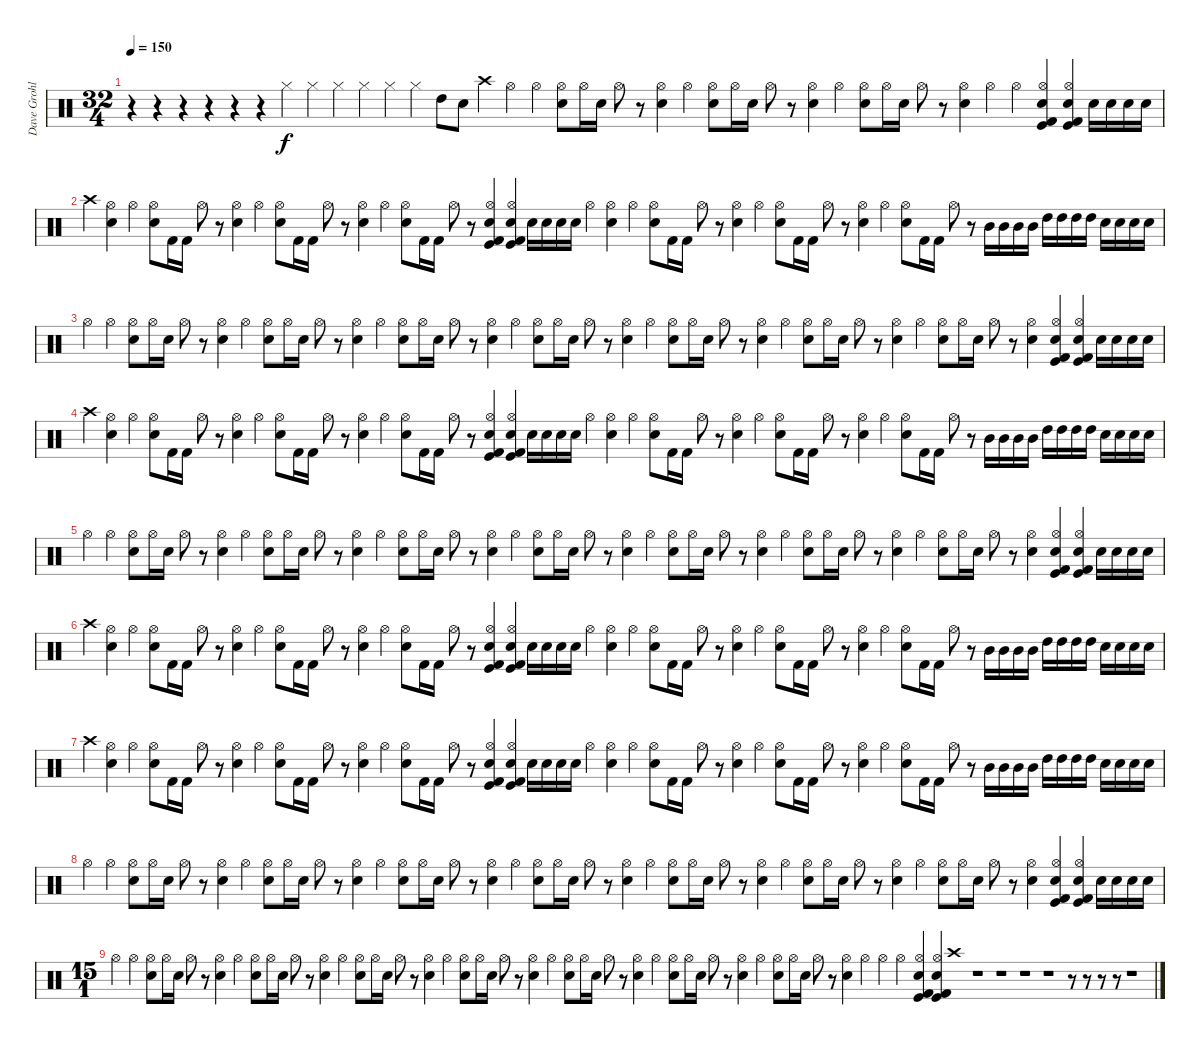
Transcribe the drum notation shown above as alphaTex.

\track ("Dave Grohl" "Dave Grohl") {instrument percussion}
\staff {score}
\articulation defaults
\ts (32 4)
\tempo 150
\clef neutral
\ks c
r.4{dy f} r.4 r.4 r.4 r.4 r.4 "Hi-Hat (closed)".4 "Hi-Hat (closed)".4 "Hi-Hat (closed)".4 "Hi-Hat (closed)".4 "Hi-Hat (closed)".4 "Hi-Hat (closed)".4 "High Tom (hit)".8 "Snare (hit) 2".8 "Crash high (hit)".4 "Hi-Hat (open)".4 "Hi-Hat (open)".4 ("Hi-Hat (open)" "Snare (hit) 2").8 "Hi-Hat (open)".16 "Snare (hit) 2".16 "Hi-Hat (open)".8 r.8 ("Hi-Hat (open)" "Snare (hit) 2").4 "Hi-Hat (open)".4 ("Hi-Hat (open)" "Snare (hit) 2").8 "Hi-Hat (open)".16 "Snare (hit) 2".16 "Hi-Hat (open)".8 r.8 ("Hi-Hat (open)" "Snare (hit) 2").4 "Hi-Hat (open)".4 ("Hi-Hat (open)" "Snare (hit) 2").8 "Hi-Hat (open)".16 "Snare (hit) 2".16 "Hi-Hat (open)".8 r.8 ("Hi-Hat (open)" "Snare (hit) 2").4 "Hi-Hat (open)".4 "Hi-Hat (open)".4 ("Hi-Hat (open)" "Snare (hit) 2" "Kick (hit) 2" "Kick (hit)").4 ("Hi-Hat (open)" "Snare (hit) 2" "Kick (hit) 2" "Kick (hit)").4 "Snare (hit) 2".16 "Snare (hit) 2".16 "Snare (hit) 2".16 "Snare (hit) 2".16 |
"Crash high (hit)".4 ("Hi-Hat (open)" "Snare (hit) 2").4 "Hi-Hat (open)".4 ("Hi-Hat (open)" "Snare (hit) 2").8 "Kick (hit) 2".16 "Kick (hit) 2".16 "Hi-Hat (open)".8 r.8 ("Hi-Hat (open)" "Snare (hit) 2").4 "Hi-Hat (open)".4 ("Hi-Hat (open)" "Snare (hit) 2").8 "Kick (hit) 2".16 "Kick (hit) 2".16 "Hi-Hat (open)".8 r.8 ("Hi-Hat (open)" "Snare (hit) 2").4 "Hi-Hat (open)".4 ("Hi-Hat (open)" "Snare (hit) 2").8 "Kick (hit) 2".16 "Kick (hit) 2".16 "Hi-Hat (open)".8 r.8 ("Hi-Hat (open)" "Snare (hit) 2" "Kick (hit)" "Kick (hit) 2").4 ("Hi-Hat (open)" "Snare (hit) 2" "Kick (hit)" "Kick (hit) 2").4 "Snare (hit) 2".16 "Snare (hit) 2".16 "Snare (hit) 2".16 "Snare (hit) 2".16 "Hi-Hat (open)".4 ("Hi-Hat (open)" "Snare (hit) 2").4 "Hi-Hat (open)".4 ("Hi-Hat (open)" "Snare (hit) 2").8 "Kick (hit) 2".16 "Kick (hit) 2".16 "Hi-Hat (open)".8 r.8 ("Hi-Hat (open)" "Snare (hit) 2").4 "Hi-Hat (open)".4 ("Hi-Hat (open)" "Snare (hit) 2").8 "Kick (hit) 2".16 "Kick (hit) 2".16 "Hi-Hat (open)".8 r.8 ("Hi-Hat (open)" "Snare (hit) 2").4 "Hi-Hat (open)".4 ("Hi-Hat (open)" "Snare (hit) 2").8 "Kick (hit) 2".16 "Kick (hit) 2".16 "Hi-Hat (open)".8 r.8 "Mid Tom (hit)".16 "Mid Tom (hit)".16 "Mid Tom (hit)".16 "Mid Tom (hit)".16 "High Tom (hit)".16 "High Tom (hit)".16 "High Tom (hit)".16 "High Tom (hit)".16 "Snare (hit) 2".16 "Snare (hit) 2".16 "Snare (hit) 2".16 "Snare (hit) 2".16 |
"Hi-Hat (open)".4 "Hi-Hat (open)".4 ("Hi-Hat (open)" "Snare (hit) 2").8 "Hi-Hat (open)".16 "Snare (hit) 2".16 "Hi-Hat (open)".8 r.8 ("Hi-Hat (open)" "Snare (hit) 2").4 "Hi-Hat (open)".4 ("Hi-Hat (open)" "Snare (hit) 2").8 "Hi-Hat (open)".16 "Snare (hit) 2".16 "Hi-Hat (open)".8 r.8 ("Hi-Hat (open)" "Snare (hit) 2").4 "Hi-Hat (open)".4 ("Hi-Hat (open)" "Snare (hit) 2").8 "Hi-Hat (open)".16 "Snare (hit) 2".16 "Hi-Hat (open)".8 r.8 ("Hi-Hat (open)" "Snare (hit) 2").4 "Hi-Hat (open)".4 ("Hi-Hat (open)" "Snare (hit) 2").8 "Hi-Hat (open)".16 "Snare (hit) 2".16 "Hi-Hat (open)".8 r.8 ("Hi-Hat (open)" "Snare (hit) 2").4 "Hi-Hat (open)".4 ("Hi-Hat (open)" "Snare (hit) 2").8 "Hi-Hat (open)".16 "Snare (hit) 2".16 "Hi-Hat (open)".8 r.8 ("Hi-Hat (open)" "Snare (hit) 2").4 "Hi-Hat (open)".4 ("Hi-Hat (open)" "Snare (hit) 2").8 "Hi-Hat (open)".16 "Snare (hit) 2".16 "Hi-Hat (open)".8 r.8 ("Hi-Hat (open)" "Snare (hit) 2").4 "Hi-Hat (open)".4 ("Hi-Hat (open)" "Snare (hit) 2").8 "Hi-Hat (open)".16 "Snare (hit) 2".16 "Hi-Hat (open)".8 r.8 ("Hi-Hat (open)" "Snare (hit) 2").4 ("Hi-Hat (open)" "Snare (hit) 2" "Kick (hit)" "Kick (hit) 2").4 ("Hi-Hat (open)" "Snare (hit) 2" "Kick (hit)" "Kick (hit) 2").4 "Snare (hit) 2".16 "Snare (hit) 2".16 "Snare (hit) 2".16 "Snare (hit) 2".16 |
"Crash high (hit)".4 ("Hi-Hat (open)" "Snare (hit) 2").4 "Hi-Hat (open)".4 ("Hi-Hat (open)" "Snare (hit) 2").8 "Kick (hit) 2".16 "Kick (hit) 2".16 "Hi-Hat (open)".8 r.8 ("Hi-Hat (open)" "Snare (hit) 2").4 "Hi-Hat (open)".4 ("Hi-Hat (open)" "Snare (hit) 2").8 "Kick (hit) 2".16 "Kick (hit) 2".16 "Hi-Hat (open)".8 r.8 ("Hi-Hat (open)" "Snare (hit) 2").4 "Hi-Hat (open)".4 ("Hi-Hat (open)" "Snare (hit) 2").8 "Kick (hit) 2".16 "Kick (hit) 2".16 "Hi-Hat (open)".8 r.8 ("Hi-Hat (open)" "Snare (hit) 2" "Kick (hit)" "Kick (hit) 2").4 ("Hi-Hat (open)" "Snare (hit) 2" "Kick (hit)" "Kick (hit) 2").4 "Snare (hit) 2".16 "Snare (hit) 2".16 "Snare (hit) 2".16 "Snare (hit) 2".16 "Hi-Hat (open)".4 ("Hi-Hat (open)" "Snare (hit) 2").4 "Hi-Hat (open)".4 ("Hi-Hat (open)" "Snare (hit) 2").8 "Kick (hit) 2".16 "Kick (hit) 2".16 "Hi-Hat (open)".8 r.8 ("Hi-Hat (open)" "Snare (hit) 2").4 "Hi-Hat (open)".4 ("Hi-Hat (open)" "Snare (hit) 2").8 "Kick (hit) 2".16 "Kick (hit) 2".16 "Hi-Hat (open)".8 r.8 ("Hi-Hat (open)" "Snare (hit) 2").4 "Hi-Hat (open)".4 ("Hi-Hat (open)" "Snare (hit) 2").8 "Kick (hit) 2".16 "Kick (hit) 2".16 "Hi-Hat (open)".8 r.8 "Mid Tom (hit)".16 "Mid Tom (hit)".16 "Mid Tom (hit)".16 "Mid Tom (hit)".16 "High Tom (hit)".16 "High Tom (hit)".16 "High Tom (hit)".16 "High Tom (hit)".16 "Snare (hit) 2".16 "Snare (hit) 2".16 "Snare (hit) 2".16 "Snare (hit) 2".16 |
"Hi-Hat (open)".4 "Hi-Hat (open)".4 ("Hi-Hat (open)" "Snare (hit) 2").8 "Hi-Hat (open)".16 "Snare (hit) 2".16 "Hi-Hat (open)".8 r.8 ("Hi-Hat (open)" "Snare (hit) 2").4 "Hi-Hat (open)".4 ("Hi-Hat (open)" "Snare (hit) 2").8 "Hi-Hat (open)".16 "Snare (hit) 2".16 "Hi-Hat (open)".8 r.8 ("Hi-Hat (open)" "Snare (hit) 2").4 "Hi-Hat (open)".4 ("Hi-Hat (open)" "Snare (hit) 2").8 "Hi-Hat (open)".16 "Snare (hit) 2".16 "Hi-Hat (open)".8 r.8 ("Hi-Hat (open)" "Snare (hit) 2").4 "Hi-Hat (open)".4 ("Hi-Hat (open)" "Snare (hit) 2").8 "Hi-Hat (open)".16 "Snare (hit) 2".16 "Hi-Hat (open)".8 r.8 ("Hi-Hat (open)" "Snare (hit) 2").4 "Hi-Hat (open)".4 ("Hi-Hat (open)" "Snare (hit) 2").8 "Hi-Hat (open)".16 "Snare (hit) 2".16 "Hi-Hat (open)".8 r.8 ("Hi-Hat (open)" "Snare (hit) 2").4 "Hi-Hat (open)".4 ("Hi-Hat (open)" "Snare (hit) 2").8 "Hi-Hat (open)".16 "Snare (hit) 2".16 "Hi-Hat (open)".8 r.8 ("Hi-Hat (open)" "Snare (hit) 2").4 "Hi-Hat (open)".4 ("Hi-Hat (open)" "Snare (hit) 2").8 "Hi-Hat (open)".16 "Snare (hit) 2".16 "Hi-Hat (open)".8 r.8 ("Hi-Hat (open)" "Snare (hit) 2").4 ("Hi-Hat (open)" "Snare (hit) 2" "Kick (hit)" "Kick (hit) 2").4 ("Hi-Hat (open)" "Snare (hit) 2" "Kick (hit)" "Kick (hit) 2").4 "Snare (hit) 2".16 "Snare (hit) 2".16 "Snare (hit) 2".16 "Snare (hit) 2".16 |
"Crash high (hit)".4 ("Hi-Hat (open)" "Snare (hit) 2").4 "Hi-Hat (open)".4 ("Hi-Hat (open)" "Snare (hit) 2").8 "Kick (hit) 2".16 "Kick (hit) 2".16 "Hi-Hat (open)".8 r.8 ("Hi-Hat (open)" "Snare (hit) 2").4 "Hi-Hat (open)".4 ("Hi-Hat (open)" "Snare (hit) 2").8 "Kick (hit) 2".16 "Kick (hit) 2".16 "Hi-Hat (open)".8 r.8 ("Hi-Hat (open)" "Snare (hit) 2").4 "Hi-Hat (open)".4 ("Hi-Hat (open)" "Snare (hit) 2").8 "Kick (hit) 2".16 "Kick (hit) 2".16 "Hi-Hat (open)".8 r.8 ("Hi-Hat (open)" "Snare (hit) 2" "Kick (hit)" "Kick (hit) 2").4 ("Hi-Hat (open)" "Snare (hit) 2" "Kick (hit)" "Kick (hit) 2").4 "Snare (hit) 2".16 "Snare (hit) 2".16 "Snare (hit) 2".16 "Snare (hit) 2".16 "Hi-Hat (open)".4 ("Hi-Hat (open)" "Snare (hit) 2").4 "Hi-Hat (open)".4 ("Hi-Hat (open)" "Snare (hit) 2").8 "Kick (hit) 2".16 "Kick (hit) 2".16 "Hi-Hat (open)".8 r.8 ("Hi-Hat (open)" "Snare (hit) 2").4 "Hi-Hat (open)".4 ("Hi-Hat (open)" "Snare (hit) 2").8 "Kick (hit) 2".16 "Kick (hit) 2".16 "Hi-Hat (open)".8 r.8 ("Hi-Hat (open)" "Snare (hit) 2").4 "Hi-Hat (open)".4 ("Hi-Hat (open)" "Snare (hit) 2").8 "Kick (hit) 2".16 "Kick (hit) 2".16 "Hi-Hat (open)".8 r.8 "Mid Tom (hit)".16 "Mid Tom (hit)".16 "Mid Tom (hit)".16 "Mid Tom (hit)".16 "High Tom (hit)".16 "High Tom (hit)".16 "High Tom (hit)".16 "High Tom (hit)".16 "Snare (hit) 2".16 "Snare (hit) 2".16 "Snare (hit) 2".16 "Snare (hit) 2".16 |
"Crash high (hit)".4 ("Hi-Hat (open)" "Snare (hit) 2").4 "Hi-Hat (open)".4 ("Hi-Hat (open)" "Snare (hit) 2").8 "Kick (hit) 2".16 "Kick (hit) 2".16 "Hi-Hat (open)".8 r.8 ("Hi-Hat (open)" "Snare (hit) 2").4 "Hi-Hat (open)".4 ("Hi-Hat (open)" "Snare (hit) 2").8 "Kick (hit) 2".16 "Kick (hit) 2".16 "Hi-Hat (open)".8 r.8 ("Hi-Hat (open)" "Snare (hit) 2").4 "Hi-Hat (open)".4 ("Hi-Hat (open)" "Snare (hit) 2").8 "Kick (hit) 2".16 "Kick (hit) 2".16 "Hi-Hat (open)".8 r.8 ("Hi-Hat (open)" "Snare (hit) 2" "Kick (hit)" "Kick (hit) 2").4 ("Hi-Hat (open)" "Snare (hit) 2" "Kick (hit)" "Kick (hit) 2").4 "Snare (hit) 2".16 "Snare (hit) 2".16 "Snare (hit) 2".16 "Snare (hit) 2".16 "Hi-Hat (open)".4 ("Hi-Hat (open)" "Snare (hit) 2").4 "Hi-Hat (open)".4 ("Hi-Hat (open)" "Snare (hit) 2").8 "Kick (hit) 2".16 "Kick (hit) 2".16 "Hi-Hat (open)".8 r.8 ("Hi-Hat (open)" "Snare (hit) 2").4 "Hi-Hat (open)".4 ("Hi-Hat (open)" "Snare (hit) 2").8 "Kick (hit) 2".16 "Kick (hit) 2".16 "Hi-Hat (open)".8 r.8 ("Hi-Hat (open)" "Snare (hit) 2").4 "Hi-Hat (open)".4 ("Hi-Hat (open)" "Snare (hit) 2").8 "Kick (hit) 2".16 "Kick (hit) 2".16 "Hi-Hat (open)".8 r.8 "Mid Tom (hit)".16 "Mid Tom (hit)".16 "Mid Tom (hit)".16 "Mid Tom (hit)".16 "High Tom (hit)".16 "High Tom (hit)".16 "High Tom (hit)".16 "High Tom (hit)".16 "Snare (hit) 2".16 "Snare (hit) 2".16 "Snare (hit) 2".16 "Snare (hit) 2".16 |
"Hi-Hat (open)".4 "Hi-Hat (open)".4 ("Hi-Hat (open)" "Snare (hit) 2").8 "Hi-Hat (open)".16 "Snare (hit) 2".16 "Hi-Hat (open)".8 r.8 ("Hi-Hat (open)" "Snare (hit) 2").4 "Hi-Hat (open)".4 ("Hi-Hat (open)" "Snare (hit) 2").8 "Hi-Hat (open)".16 "Snare (hit) 2".16 "Hi-Hat (open)".8 r.8 ("Hi-Hat (open)" "Snare (hit) 2").4 "Hi-Hat (open)".4 ("Hi-Hat (open)" "Snare (hit) 2").8 "Hi-Hat (open)".16 "Snare (hit) 2".16 "Hi-Hat (open)".8 r.8 ("Hi-Hat (open)" "Snare (hit) 2").4 "Hi-Hat (open)".4 ("Hi-Hat (open)" "Snare (hit) 2").8 "Hi-Hat (open)".16 "Snare (hit) 2".16 "Hi-Hat (open)".8 r.8 ("Hi-Hat (open)" "Snare (hit) 2").4 "Hi-Hat (open)".4 ("Hi-Hat (open)" "Snare (hit) 2").8 "Hi-Hat (open)".16 "Snare (hit) 2".16 "Hi-Hat (open)".8 r.8 ("Hi-Hat (open)" "Snare (hit) 2").4 "Hi-Hat (open)".4 ("Hi-Hat (open)" "Snare (hit) 2").8 "Hi-Hat (open)".16 "Snare (hit) 2".16 "Hi-Hat (open)".8 r.8 ("Hi-Hat (open)" "Snare (hit) 2").4 "Hi-Hat (open)".4 ("Hi-Hat (open)" "Snare (hit) 2").8 "Hi-Hat (open)".16 "Snare (hit) 2".16 "Hi-Hat (open)".8 r.8 ("Hi-Hat (open)" "Snare (hit) 2").4 ("Hi-Hat (open)" "Snare (hit) 2" "Kick (hit)" "Kick (hit) 2").4 ("Hi-Hat (open)" "Snare (hit) 2" "Kick (hit)" "Kick (hit) 2").4 "Snare (hit) 2".16 "Snare (hit) 2".16 "Snare (hit) 2".16 "Snare (hit) 2".16 |
\ts (15 1)
"Hi-Hat (open)".4 "Hi-Hat (open)".4 ("Hi-Hat (open)" "Snare (hit) 2").8 "Hi-Hat (open)".16 "Snare (hit) 2".16 "Hi-Hat (open)".8 r.8 ("Hi-Hat (open)" "Snare (hit) 2").4 "Hi-Hat (open)".4 ("Hi-Hat (open)" "Snare (hit) 2").8 "Hi-Hat (open)".16 "Snare (hit) 2".16 "Hi-Hat (open)".8 r.8 ("Hi-Hat (open)" "Snare (hit) 2").4 "Hi-Hat (open)".4 ("Hi-Hat (open)" "Snare (hit) 2").8 "Hi-Hat (open)".16 "Snare (hit) 2".16 "Hi-Hat (open)".8 r.8 ("Hi-Hat (open)" "Snare (hit) 2").4 "Hi-Hat (open)".4 ("Hi-Hat (open)" "Snare (hit) 2").8 "Hi-Hat (open)".16 "Snare (hit) 2".16 "Hi-Hat (open)".8 r.8 ("Hi-Hat (open)" "Snare (hit) 2").4 "Hi-Hat (open)".4 ("Hi-Hat (open)" "Snare (hit) 2").8 "Hi-Hat (open)".16 "Snare (hit) 2".16 "Hi-Hat (open)".8 r.8 ("Hi-Hat (open)" "Snare (hit) 2").4 "Hi-Hat (open)".4 ("Hi-Hat (open)" "Snare (hit) 2").8 "Hi-Hat (open)".16 "Snare (hit) 2".16 "Hi-Hat (open)".8 r.8 ("Hi-Hat (open)" "Snare (hit) 2").4 "Hi-Hat (open)".4 ("Hi-Hat (open)" "Snare (hit) 2").8 "Hi-Hat (open)".16 "Snare (hit) 2".16 "Hi-Hat (open)".8 r.8 ("Hi-Hat (open)" "Snare (hit) 2").4 "Hi-Hat (open)".4 "Hi-Hat (open)".4 "Hi-Hat (open)".4 ("Hi-Hat (open)" "Snare (hit) 2" "Kick (hit)" "Kick (hit) 2").4 ("Hi-Hat (open)" "Snare (hit) 2" "Kick (hit)" "Kick (hit) 2").4 "Crash high (hit)".1 r.1 r.1 r.1 r.1 r.8 r.8 r.8 r.8 r.1
